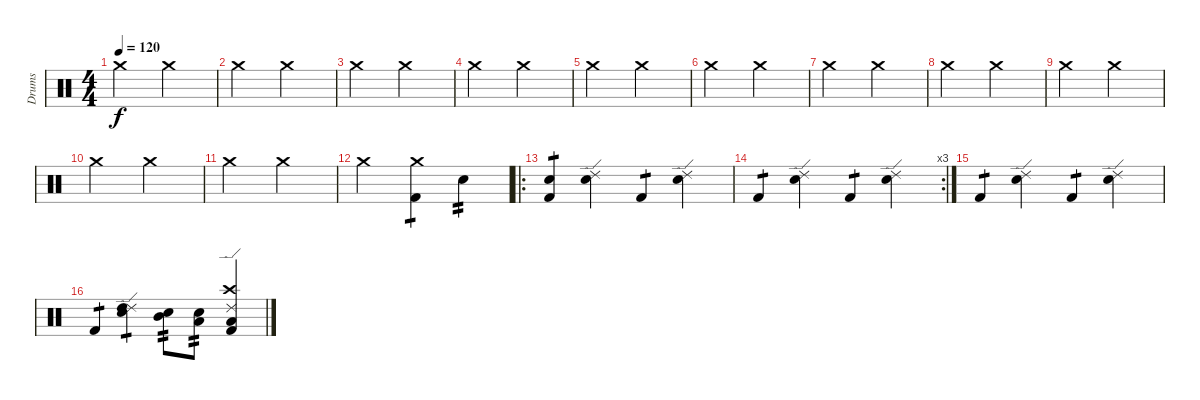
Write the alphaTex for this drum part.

\track ("Drums" "Drums") {instrument percussion}
\staff {score}
\articulation defaults
\ts (4 4)
\tempo 120
\clef neutral
\ks c "Crash medium (hit)".2{dy f} "Crash medium (hit)".2
|
"Crash medium (hit)".2 "Crash medium (hit)".2 |
"Crash medium (hit)".2 "Crash medium (hit)".2 |
"Crash medium (hit)".2 "Crash medium (hit)".2 |
"Crash medium (hit)".2 "Crash medium (hit)".2 |
"Crash medium (hit)".2 "Crash medium (hit)".2 |
"Crash medium (hit)".2 "Crash medium (hit)".2 |
"Crash medium (hit)".2 "Crash medium (hit)".2 |
"Crash medium (hit)".2 "Crash medium (hit)".2 |
"Crash medium (hit)".2 "Crash medium (hit)".2 |
"Crash medium (hit)".2 "Crash medium (hit)".2 |
"Crash medium (hit)".2 ("Crash medium (hit)" "Kick (hit) 2").4{tp 1} "Snare (hit) 2".4{tp 2} |
\ro
("Kick (hit) 2" "Snare (hit)").4{tp 1} ("Ride (edge) 2" "Snare (hit) 2").4 "Kick (hit) 2".4{tp 1} ("Ride (edge) 2" "Snare (hit) 2").4 |
\rc 3 "Kick (hit) 2".4{tp 1}
("Ride (edge) 2" "Snare (hit) 2").4 "Kick (hit) 2".4{tp 1} ("Ride (edge) 2" "Snare (hit) 2").4 |
"Kick (hit) 2".4{tp 1} ("Ride (edge) 2" "Snare (hit) 2").4 "Kick (hit) 2".4{tp 1} ("Ride (edge) 2" "Snare (hit) 2").4 |
"Kick (hit) 2".4{tp 1} ("Ride (edge) 2" "Snare (hit) 2" "High Tom (hit)").4{tp 1} ("Snare (hit) 2" "Mid Tom (hit)").8{tp 2} ("Snare (hit) 2" "Low Tom (hit)").8{tp 2} ("Kick (hit) 2" "Ride (edge) 2" "Crash high (hit)" "Low Floor Tom (hit)").4
